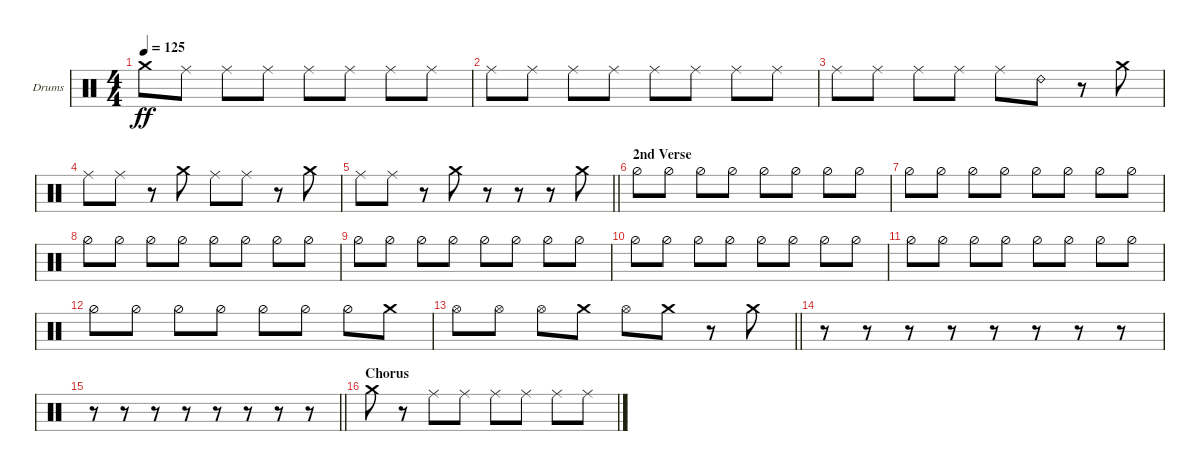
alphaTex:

\bracketExtendMode groupsimilarinstruments
\firstSystemTrackNameOrientation horizontal
\otherSystemsTrackNameOrientation horizontal
\track ("Nick Menza" "Drums") {instrument percussion}
\staff {score}
\articulation defaults
\ts (4 4)
\tempo 125
\clef neutral
\scale
0.333333
\ks c "Crash medium (hit)".8{dy ff} "Ride (middle)".8 "Ride (middle)".8 "Ride (middle)".8 "Ride (middle)".8 "Ride (middle)".8 "Ride (middle)".8 "Ride (middle)".8
|
\scale
0.333333 "Ride (middle)".8 "Ride (middle)".8 "Ride (middle)".8 "Ride (middle)".8 "Ride (middle)".8 "Ride (middle)".8 "Ride (middle)".8 "Ride (middle)".8 |
\scale
0.333333 "Ride (middle)".8 "Ride (middle)".8 "Ride (middle)".8 "Ride (middle)".8 "Ride (middle)".8 "Ride (bell) 2".8 r.8 "Crash medium (hit)".8 |
\scale
0.333333 "Ride (middle)".8 "Ride (middle)".8 r.8 "Crash medium (hit)".8 "Ride (middle)".8 "Ride (middle)".8 r.8 "Crash medium (hit)".8 |
\scale
0.333333
\barLineRight lightlight "Ride (middle)".8 "Ride (middle)".8
r.8 "Crash medium (hit)".8 r.8 r.8 r.8 "Crash medium (hit)".8 |
\section ("" "2nd Verse")
\scale
0.333333 "Hi-Hat (half)".8 "Hi-Hat (half)".8 "Hi-Hat (half)".8 "Hi-Hat (half)".8 "Hi-Hat (half)".8 "Hi-Hat (half)".8 "Hi-Hat (half)".8 "Hi-Hat (half)".8 |
\scale
0.333333 "Hi-Hat (half)".8 "Hi-Hat (half)".8 "Hi-Hat (half)".8 "Hi-Hat (half)".8 "Hi-Hat (half)".8 "Hi-Hat (half)".8 "Hi-Hat (half)".8 "Hi-Hat (half)".8 |
\scale
0.333333 "Hi-Hat (half)".8 "Hi-Hat (half)".8 "Hi-Hat (half)".8 "Hi-Hat (half)".8 "Hi-Hat (half)".8 "Hi-Hat (half)".8 "Hi-Hat (half)".8 "Hi-Hat (half)".8 |
\scale
0.333333 "Hi-Hat (half)".8 "Hi-Hat (half)".8 "Hi-Hat (half)".8 "Hi-Hat (half)".8 "Hi-Hat (half)".8 "Hi-Hat (half)".8 "Hi-Hat (half)".8 "Hi-Hat (half)".8 |
\scale
0.333333 "Hi-Hat (half)".8 "Hi-Hat (half)".8 "Hi-Hat (half)".8 "Hi-Hat (half)".8 "Hi-Hat (half)".8 "Hi-Hat (half)".8 "Hi-Hat (half)".8 "Hi-Hat (half)".8 |
\scale
0.333333 "Hi-Hat (half)".8 "Hi-Hat (half)".8 "Hi-Hat (half)".8 "Hi-Hat (half)".8 "Hi-Hat (half)".8 "Hi-Hat (half)".8 "Hi-Hat (half)".8 "Hi-Hat (half)".8 |
\scale
0.333333 "Hi-Hat (half)".8 "Hi-Hat (half)".8 "Hi-Hat (half)".8 "Hi-Hat (half)".8 "Hi-Hat (half)".8 "Hi-Hat (half)".8 "Hi-Hat (half)".8 "Crash medium (hit)".8 |
\scale
0.333333
\barLineRight lightlight "Hi-Hat (open)".8 "Hi-Hat (open)".8 "Hi-Hat (open)".8 "Crash medium (hit)".8 "Hi-Hat (open)".8 "Crash medium (hit)".8
r.8 "Crash medium (hit)".8 |
\scale
0.333333 r.8 r.8 r.8 r.8 r.8 r.8 r.8 r.8 |
\scale
0.333333
\barLineRight lightlight
r.8 r.8 r.8 r.8 r.8 r.8 r.8 r.8 |
\section ("" "Chorus")
\scale
0.333333 "Crash medium (hit)".8 r.8 "Ride (middle)".8 "Ride (middle)".8 "Ride (middle)".8 "Ride (middle)".8 "Ride (middle)".8 "Ride (middle)".8
